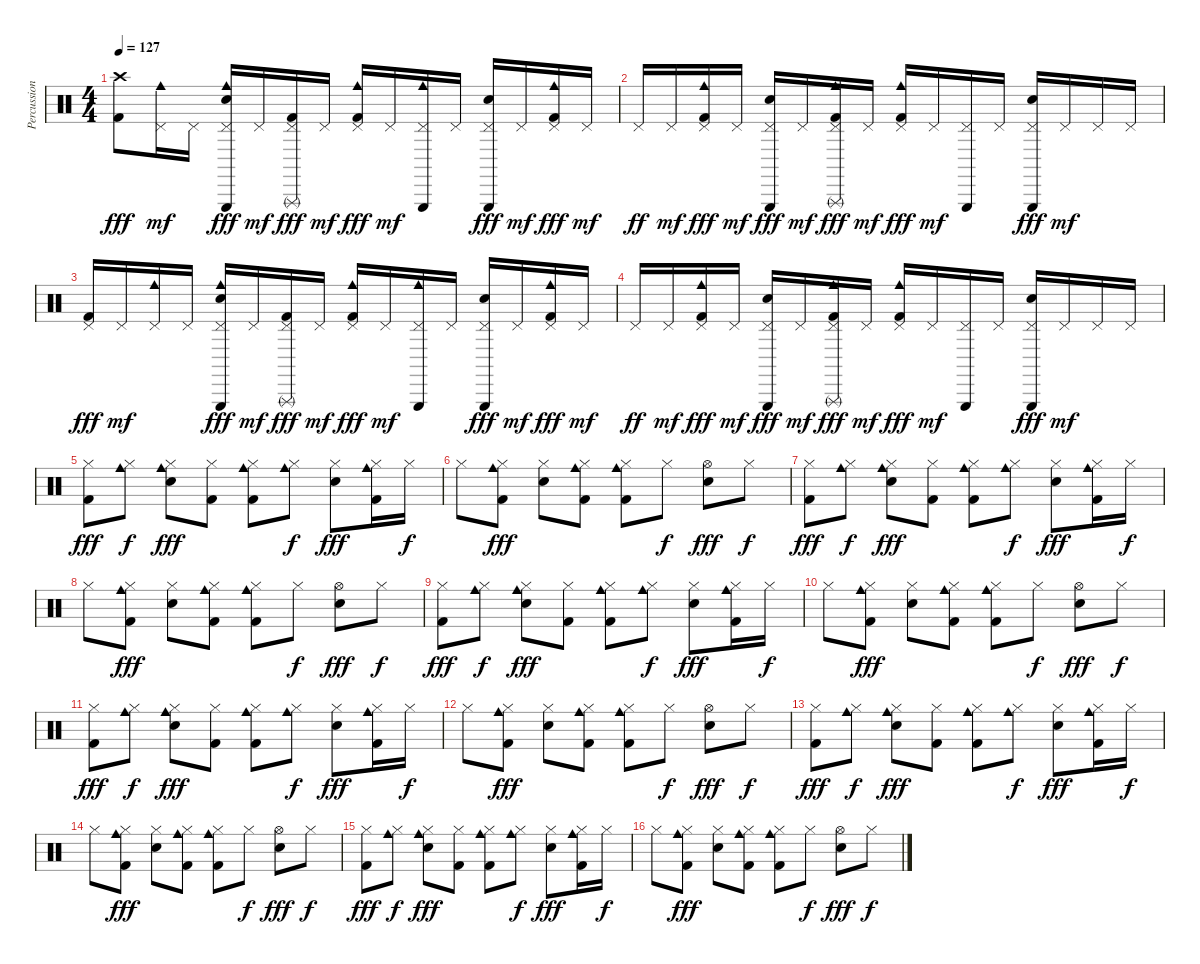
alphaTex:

\track ("Percussion" "Percussion") {instrument percussion}
\staff {score}
\articulation defaults
\ts (4 4)
\tempo 127
\clef neutral
\ks c
("Crash high (hit)" "Kick (hit) 2").8{dy fff} ("Pedal Hi-Hat (hit)" "Cowbell medium (hit)").16{dy mf} "Pedal Hi-Hat (hit)".16 ("Pedal Hi-Hat (hit)" "Triangle (hit)" "Electric Snare (hit)" "Cowbell medium (hit)").16{dy fff} "Pedal Hi-Hat (hit)".16{dy mf} ("Pedal Hi-Hat (hit)" "Triangle (rnute)" "Kick (hit) 2").16{dy fff} "Pedal Hi-Hat (hit)".16{dy mf} ("Pedal Hi-Hat (hit)" "Cowbell medium (hit)" "Kick (hit) 2").16{dy fff} "Pedal Hi-Hat (hit)".16{dy mf} ("Pedal Hi-Hat (hit)" "Triangle (hit)" "Cowbell medium (hit)").16 "Pedal Hi-Hat (hit)".16 ("Pedal Hi-Hat (hit)" "Triangle (hit)" "Electric Snare (hit)").16{dy fff} "Pedal Hi-Hat (hit)".16{dy mf} ("Pedal Hi-Hat (hit)" "Cowbell medium (hit)" "Kick (hit) 2").16{dy fff} "Pedal Hi-Hat (hit)".16{dy mf} |
"Pedal Hi-Hat (hit)".16{dy ff} "Pedal Hi-Hat (hit)".16{dy mf} ("Pedal Hi-Hat (hit)" "Cowbell medium (hit)" "Kick (hit) 2").16{dy fff} "Pedal Hi-Hat (hit)".16{dy mf} ("Pedal Hi-Hat (hit)" "Triangle (hit)" "Electric Snare (hit)").16{dy fff} "Pedal Hi-Hat (hit)".16{dy mf} ("Pedal Hi-Hat (hit)" "Triangle (rnute)" "Cowbell medium (hit)" "Kick (hit) 2").16{dy fff} "Pedal Hi-Hat (hit)".16{dy mf} ("Pedal Hi-Hat (hit)" "Cowbell medium (hit)" "Kick (hit) 2").16{dy fff} "Pedal Hi-Hat (hit)".16{dy mf} ("Pedal Hi-Hat (hit)" "Triangle (hit)").16 "Pedal Hi-Hat (hit)".16 ("Pedal Hi-Hat (hit)" "Triangle (hit)" "Electric Snare (hit)").16{dy fff} "Pedal Hi-Hat (hit)".16{dy mf} "Pedal Hi-Hat (hit)".16 "Pedal Hi-Hat (hit)".16 |
("Pedal Hi-Hat (hit)" "Kick (hit) 2").16{dy fff} "Pedal Hi-Hat (hit)".16{dy mf} ("Pedal Hi-Hat (hit)" "Cowbell medium (hit)").16 "Pedal Hi-Hat (hit)".16 ("Pedal Hi-Hat (hit)" "Triangle (hit)" "Electric Snare (hit)" "Cowbell medium (hit)").16{dy fff} "Pedal Hi-Hat (hit)".16{dy mf} ("Pedal Hi-Hat (hit)" "Triangle (rnute)" "Kick (hit) 2").16{dy fff} "Pedal Hi-Hat (hit)".16{dy mf} ("Pedal Hi-Hat (hit)" "Cowbell medium (hit)" "Kick (hit) 2").16{dy fff} "Pedal Hi-Hat (hit)".16{dy mf} ("Pedal Hi-Hat (hit)" "Triangle (hit)" "Cowbell medium (hit)").16 "Pedal Hi-Hat (hit)".16 ("Pedal Hi-Hat (hit)" "Triangle (hit)" "Electric Snare (hit)").16{dy fff} "Pedal Hi-Hat (hit)".16{dy mf} ("Pedal Hi-Hat (hit)" "Cowbell medium (hit)" "Kick (hit) 2").16{dy fff} "Pedal Hi-Hat (hit)".16{dy mf} |
"Pedal Hi-Hat (hit)".16{dy ff} "Pedal Hi-Hat (hit)".16{dy mf} ("Pedal Hi-Hat (hit)" "Cowbell medium (hit)" "Kick (hit) 2").16{dy fff} "Pedal Hi-Hat (hit)".16{dy mf} ("Pedal Hi-Hat (hit)" "Triangle (hit)" "Electric Snare (hit)").16{dy fff} "Pedal Hi-Hat (hit)".16{dy mf} ("Pedal Hi-Hat (hit)" "Triangle (rnute)" "Cowbell medium (hit)" "Kick (hit) 2").16{dy fff} "Pedal Hi-Hat (hit)".16{dy mf} ("Pedal Hi-Hat (hit)" "Cowbell medium (hit)" "Kick (hit) 2").16{dy fff} "Pedal Hi-Hat (hit)".16{dy mf} ("Pedal Hi-Hat (hit)" "Triangle (hit)").16 "Pedal Hi-Hat (hit)".16 ("Pedal Hi-Hat (hit)" "Triangle (hit)" "Electric Snare (hit)").16{dy fff} "Pedal Hi-Hat (hit)".16{dy mf} "Pedal Hi-Hat (hit)".16 "Pedal Hi-Hat (hit)".16 |
("Hi-Hat (closed)" "Kick (hit) 2").8{dy fff} ("Hi-Hat (closed)" "Cowbell medium (hit)").8{dy f} ("Hi-Hat (closed)" "Cowbell medium (hit)" "Electric Snare (hit)").8{dy fff} ("Hi-Hat (closed)" "Kick (hit) 2").8 ("Hi-Hat (closed)" "Cowbell medium (hit)" "Kick (hit) 2").8 ("Hi-Hat (closed)" "Cowbell medium (hit)").8{dy f} ("Hi-Hat (closed)" "Electric Snare (hit)").8{dy fff} ("Hi-Hat (closed)" "Cowbell medium (hit)" "Kick (hit) 2").16 "Hi-Hat (closed)".16{dy f} |
"Hi-Hat (closed)".8 ("Hi-Hat (closed)" "Cowbell medium (hit)" "Kick (hit) 2").8{dy fff} ("Hi-Hat (closed)" "Electric Snare (hit)").8 ("Hi-Hat (closed)" "Cowbell medium (hit)" "Kick (hit) 2").8 ("Hi-Hat (closed)" "Cowbell medium (hit)" "Kick (hit) 2").8 "Hi-Hat (closed)".8{dy f} ("Hi-Hat (open)" "Electric Snare (hit)").8{dy fff} "Hi-Hat (closed)".8{dy f} |
("Hi-Hat (closed)" "Kick (hit) 2").8{dy fff} ("Hi-Hat (closed)" "Cowbell medium (hit)").8{dy f} ("Hi-Hat (closed)" "Cowbell medium (hit)" "Electric Snare (hit)").8{dy fff} ("Hi-Hat (closed)" "Kick (hit) 2").8 ("Hi-Hat (closed)" "Cowbell medium (hit)" "Kick (hit) 2").8 ("Hi-Hat (closed)" "Cowbell medium (hit)").8{dy f} ("Hi-Hat (closed)" "Electric Snare (hit)").8{dy fff} ("Hi-Hat (closed)" "Cowbell medium (hit)" "Kick (hit) 2").16 "Hi-Hat (closed)".16{dy f} |
"Hi-Hat (closed)".8 ("Hi-Hat (closed)" "Cowbell medium (hit)" "Kick (hit) 2").8{dy fff} ("Hi-Hat (closed)" "Electric Snare (hit)").8 ("Hi-Hat (closed)" "Cowbell medium (hit)" "Kick (hit) 2").8 ("Hi-Hat (closed)" "Cowbell medium (hit)" "Kick (hit) 2").8 "Hi-Hat (closed)".8{dy f} ("Hi-Hat (open)" "Electric Snare (hit)").8{dy fff} "Hi-Hat (closed)".8{dy f} |
("Hi-Hat (closed)" "Kick (hit) 2").8{dy fff} ("Hi-Hat (closed)" "Cowbell medium (hit)").8{dy f} ("Hi-Hat (closed)" "Cowbell medium (hit)" "Electric Snare (hit)").8{dy fff} ("Hi-Hat (closed)" "Kick (hit) 2").8 ("Hi-Hat (closed)" "Cowbell medium (hit)" "Kick (hit) 2").8 ("Hi-Hat (closed)" "Cowbell medium (hit)").8{dy f} ("Hi-Hat (closed)" "Electric Snare (hit)").8{dy fff} ("Hi-Hat (closed)" "Cowbell medium (hit)" "Kick (hit) 2").16 "Hi-Hat (closed)".16{dy f} |
"Hi-Hat (closed)".8 ("Hi-Hat (closed)" "Cowbell medium (hit)" "Kick (hit) 2").8{dy fff} ("Hi-Hat (closed)" "Electric Snare (hit)").8 ("Hi-Hat (closed)" "Cowbell medium (hit)" "Kick (hit) 2").8 ("Hi-Hat (closed)" "Cowbell medium (hit)" "Kick (hit) 2").8 "Hi-Hat (closed)".8{dy f} ("Hi-Hat (open)" "Electric Snare (hit)").8{dy fff} "Hi-Hat (closed)".8{dy f} |
("Hi-Hat (closed)" "Kick (hit) 2").8{dy fff} ("Hi-Hat (closed)" "Cowbell medium (hit)").8{dy f} ("Hi-Hat (closed)" "Cowbell medium (hit)" "Electric Snare (hit)").8{dy fff} ("Hi-Hat (closed)" "Kick (hit) 2").8 ("Hi-Hat (closed)" "Cowbell medium (hit)" "Kick (hit) 2").8 ("Hi-Hat (closed)" "Cowbell medium (hit)").8{dy f} ("Hi-Hat (closed)" "Electric Snare (hit)").8{dy fff} ("Hi-Hat (closed)" "Cowbell medium (hit)" "Kick (hit) 2").16 "Hi-Hat (closed)".16{dy f} |
"Hi-Hat (closed)".8 ("Hi-Hat (closed)" "Cowbell medium (hit)" "Kick (hit) 2").8{dy fff} ("Hi-Hat (closed)" "Electric Snare (hit)").8 ("Hi-Hat (closed)" "Cowbell medium (hit)" "Kick (hit) 2").8 ("Hi-Hat (closed)" "Cowbell medium (hit)" "Kick (hit) 2").8 "Hi-Hat (closed)".8{dy f} ("Hi-Hat (open)" "Electric Snare (hit)").8{dy fff} "Hi-Hat (closed)".8{dy f} |
("Hi-Hat (closed)" "Kick (hit) 2").8{dy fff volume 6} ("Hi-Hat (closed)" "Cowbell medium (hit)").8{dy f} ("Hi-Hat (closed)" "Cowbell medium (hit)" "Electric Snare (hit)").8{dy fff} ("Hi-Hat (closed)" "Kick (hit) 2").8 ("Hi-Hat (closed)" "Cowbell medium (hit)" "Kick (hit) 2").8 ("Hi-Hat (closed)" "Cowbell medium (hit)").8{dy f} ("Hi-Hat (closed)" "Electric Snare (hit)").8{dy fff} ("Hi-Hat (closed)" "Cowbell medium (hit)" "Kick (hit) 2").16 "Hi-Hat (closed)".16{dy f} |
"Hi-Hat (closed)".8 ("Hi-Hat (closed)" "Cowbell medium (hit)" "Kick (hit) 2").8{dy fff} ("Hi-Hat (closed)" "Electric Snare (hit)").8 ("Hi-Hat (closed)" "Cowbell medium (hit)" "Kick (hit) 2").8 ("Hi-Hat (closed)" "Cowbell medium (hit)" "Kick (hit) 2").8 "Hi-Hat (closed)".8{dy f} ("Hi-Hat (open)" "Electric Snare (hit)").8{dy fff} "Hi-Hat (closed)".8{dy f} |
("Hi-Hat (closed)" "Kick (hit) 2").8{dy fff volume 0} ("Hi-Hat (closed)" "Cowbell medium (hit)").8{dy f} ("Hi-Hat (closed)" "Cowbell medium (hit)" "Electric Snare (hit)").8{dy fff} ("Hi-Hat (closed)" "Kick (hit) 2").8 ("Hi-Hat (closed)" "Cowbell medium (hit)" "Kick (hit) 2").8 ("Hi-Hat (closed)" "Cowbell medium (hit)").8{dy f} ("Hi-Hat (closed)" "Electric Snare (hit)").8{dy fff} ("Hi-Hat (closed)" "Cowbell medium (hit)" "Kick (hit) 2").16 "Hi-Hat (closed)".16{dy f} |
"Hi-Hat (closed)".8 ("Hi-Hat (closed)" "Cowbell medium (hit)" "Kick (hit) 2").8{dy fff} ("Hi-Hat (closed)" "Electric Snare (hit)").8 ("Hi-Hat (closed)" "Cowbell medium (hit)" "Kick (hit) 2").8 ("Hi-Hat (closed)" "Cowbell medium (hit)" "Kick (hit) 2").8 "Hi-Hat (closed)".8{dy f} ("Hi-Hat (open)" "Electric Snare (hit)").8{dy fff} "Hi-Hat (closed)".8{dy f}
